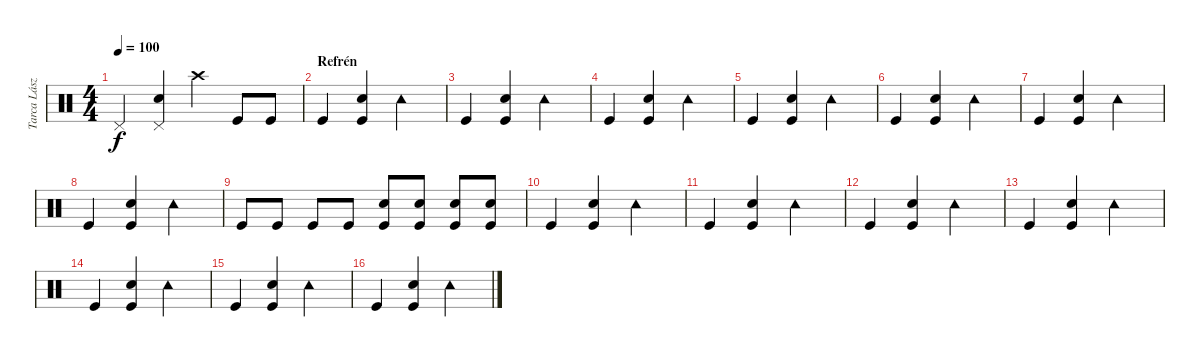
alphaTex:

\track ("Tarca László" "Tarca Lász") {instrument percussion}
\staff {score}
\articulation defaults
\ts (4 4)
\tempo 100
\clef neutral
\ks c "Pedal Hi-Hat (hit)".4{dy f}
("Snare (hit) 2" "Pedal Hi-Hat (hit)").4 "Crash high (hit)".4 "Kick (hit)".8 "Kick (hit)".8 |
\section ("" "Refrén")
"Kick (hit)".4 ("Snare (hit) 2" "Kick (hit)").4 "Tambourine (hit)".2 |
"Kick (hit)".4 ("Snare (hit) 2" "Kick (hit)").4 "Tambourine (hit)".2 |
"Kick (hit)".4 ("Snare (hit) 2" "Kick (hit)").4 "Tambourine (hit)".2 |
"Kick (hit)".4 ("Snare (hit) 2" "Kick (hit)").4 "Tambourine (hit)".2 |
"Kick (hit)".4 ("Snare (hit) 2" "Kick (hit)").4 "Tambourine (hit)".2 |
"Kick (hit)".4 ("Snare (hit) 2" "Kick (hit)").4 "Tambourine (hit)".2 |
"Kick (hit)".4 ("Snare (hit) 2" "Kick (hit)").4 "Tambourine (hit)".2 |
"Kick (hit)".8 "Kick (hit)".8 "Kick (hit)".8 "Kick (hit)".8 ("Snare (hit) 2" "Kick (hit)").8 ("Snare (hit) 2" "Kick (hit)").8 ("Snare (hit) 2" "Kick (hit)").8 ("Snare (hit) 2" "Kick (hit)").8 |
"Kick (hit)".4 ("Snare (hit) 2" "Kick (hit)").4 "Tambourine (hit)".2 |
"Kick (hit)".4 ("Snare (hit) 2" "Kick (hit)").4 "Tambourine (hit)".2 |
"Kick (hit)".4 ("Snare (hit) 2" "Kick (hit)").4 "Tambourine (hit)".2 |
"Kick (hit)".4 ("Snare (hit) 2" "Kick (hit)").4 "Tambourine (hit)".2 |
"Kick (hit)".4 ("Snare (hit) 2" "Kick (hit)").4 "Tambourine (hit)".2 |
"Kick (hit)".4 ("Snare (hit) 2" "Kick (hit)").4 "Tambourine (hit)".2 |
"Kick (hit)".4 ("Snare (hit) 2" "Kick (hit)").4 "Tambourine (hit)".2
